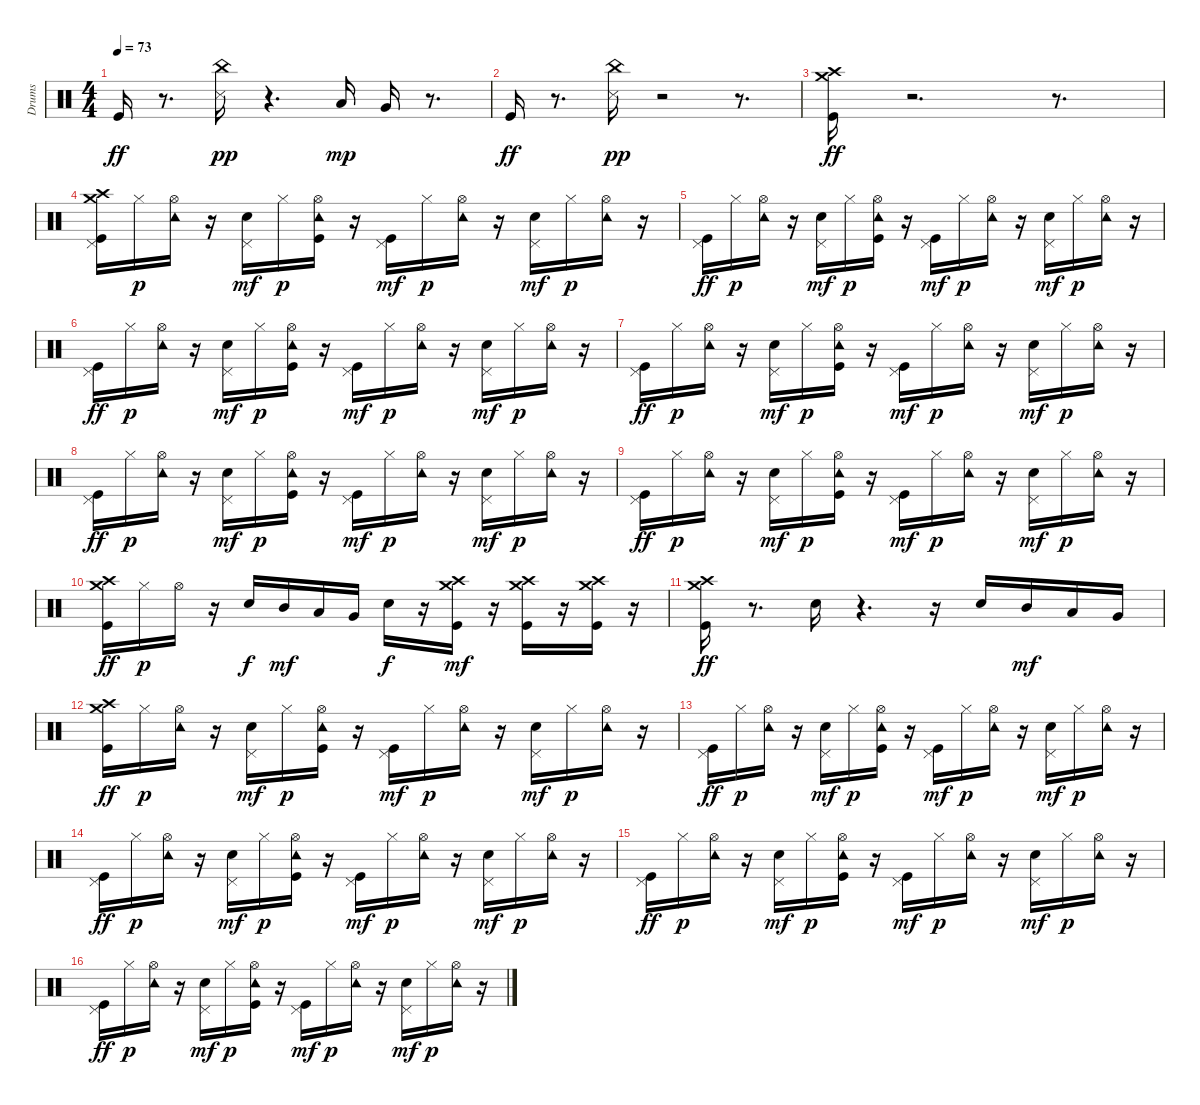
\track ("Drums" "Drums") {instrument percussion}
\staff {score}
\articulation defaults
\ts (4 4)
\tempo 73
\clef neutral
\ks c "Kick (hit)".16{dy ff}
r.8{d} ("Snare (side stick) 3" "China (hit)").16{dy pp} r.4{d} "Low Tom (hit)".16{dy mp} "Very Low Tom (hit)".16 r.8{d} |
"Kick (hit)".16{dy ff} r.8{d} ("Snare (side stick) 3" "China (hit)").16{dy pp} r.2 r.8{d} |
("Crash medium (hit)" "Crash high (hit)" "Kick (hit)").16{dy ff} r.2{d} r.8{d} |
("Crash high (hit)" "Crash medium (hit)" "Pedal Hi-Hat (hit)" "Kick (hit)").16 "Hi-Hat (closed)".16{dy p} ("Tambourine (hit)" "Hi-Hat (open)").16 r.16 ("Pedal Hi-Hat (hit)" "Snare (hit) 2").16{dy mf} "Hi-Hat (closed)".16{dy p} ("Tambourine (hit)" "Hi-Hat (open)" "Kick (hit)").16 r.16 ("Pedal Hi-Hat (hit)" "Kick (hit)").16{dy mf} "Hi-Hat (closed)".16{dy p} ("Tambourine (hit)" "Hi-Hat (open)").16 r.16 ("Pedal Hi-Hat (hit)" "Snare (hit) 2").16{dy mf} "Hi-Hat (closed)".16{dy p} ("Tambourine (hit)" "Hi-Hat (open)").16 r.16 |
("Pedal Hi-Hat (hit)" "Kick (hit)").16{dy ff} "Hi-Hat (closed)".16{dy p} ("Tambourine (hit)" "Hi-Hat (open)").16 r.16 ("Pedal Hi-Hat (hit)" "Snare (hit) 2").16{dy mf} "Hi-Hat (closed)".16{dy p} ("Tambourine (hit)" "Hi-Hat (open)" "Kick (hit)").16 r.16 ("Pedal Hi-Hat (hit)" "Kick (hit)").16{dy mf} "Hi-Hat (closed)".16{dy p} ("Tambourine (hit)" "Hi-Hat (open)").16 r.16 ("Pedal Hi-Hat (hit)" "Snare (hit) 2").16{dy mf} "Hi-Hat (closed)".16{dy p} ("Tambourine (hit)" "Hi-Hat (open)").16 r.16 |
("Pedal Hi-Hat (hit)" "Kick (hit)").16{dy ff} "Hi-Hat (closed)".16{dy p} ("Tambourine (hit)" "Hi-Hat (open)").16 r.16 ("Pedal Hi-Hat (hit)" "Snare (hit) 2").16{dy mf} "Hi-Hat (closed)".16{dy p} ("Tambourine (hit)" "Hi-Hat (open)" "Kick (hit)").16 r.16 ("Pedal Hi-Hat (hit)" "Kick (hit)").16{dy mf} "Hi-Hat (closed)".16{dy p} ("Tambourine (hit)" "Hi-Hat (open)").16 r.16 ("Pedal Hi-Hat (hit)" "Snare (hit) 2").16{dy mf} "Hi-Hat (closed)".16{dy p} ("Tambourine (hit)" "Hi-Hat (open)").16 r.16 |
("Pedal Hi-Hat (hit)" "Kick (hit)").16{dy ff} "Hi-Hat (closed)".16{dy p} ("Tambourine (hit)" "Hi-Hat (open)").16 r.16 ("Pedal Hi-Hat (hit)" "Snare (hit) 2").16{dy mf} "Hi-Hat (closed)".16{dy p} ("Tambourine (hit)" "Hi-Hat (open)" "Kick (hit)").16 r.16 ("Pedal Hi-Hat (hit)" "Kick (hit)").16{dy mf} "Hi-Hat (closed)".16{dy p} ("Tambourine (hit)" "Hi-Hat (open)").16 r.16 ("Pedal Hi-Hat (hit)" "Snare (hit) 2").16{dy mf} "Hi-Hat (closed)".16{dy p} ("Tambourine (hit)" "Hi-Hat (open)").16 r.16 |
("Pedal Hi-Hat (hit)" "Kick (hit)").16{dy ff} "Hi-Hat (closed)".16{dy p} ("Tambourine (hit)" "Hi-Hat (open)").16 r.16 ("Pedal Hi-Hat (hit)" "Snare (hit) 2").16{dy mf} "Hi-Hat (closed)".16{dy p} ("Tambourine (hit)" "Hi-Hat (open)" "Kick (hit)").16 r.16 ("Pedal Hi-Hat (hit)" "Kick (hit)").16{dy mf} "Hi-Hat (closed)".16{dy p} ("Tambourine (hit)" "Hi-Hat (open)").16 r.16 ("Pedal Hi-Hat (hit)" "Snare (hit) 2").16{dy mf} "Hi-Hat (closed)".16{dy p} ("Tambourine (hit)" "Hi-Hat (open)").16 r.16 |
("Pedal Hi-Hat (hit)" "Kick (hit)").16{dy ff} "Hi-Hat (closed)".16{dy p} ("Tambourine (hit)" "Hi-Hat (open)").16 r.16 ("Pedal Hi-Hat (hit)" "Snare (hit) 2").16{dy mf} "Hi-Hat (closed)".16{dy p} ("Tambourine (hit)" "Hi-Hat (open)" "Kick (hit)").16 r.16 ("Pedal Hi-Hat (hit)" "Kick (hit)").16{dy mf} "Hi-Hat (closed)".16{dy p} ("Tambourine (hit)" "Hi-Hat (open)").16 r.16 ("Pedal Hi-Hat (hit)" "Snare (hit) 2").16{dy mf} "Hi-Hat (closed)".16{dy p} ("Tambourine (hit)" "Hi-Hat (open)").16 r.16 |
("Crash high (hit)" "Crash medium (hit)" "Kick (hit)").16{dy ff} "Hi-Hat (closed)".16{dy p} "Hi-Hat (open)".16 r.16 "Snare (hit) 2".16{dy f} "Mid Tom (hit)".16{dy mf} "Low Tom (hit)".16 "Very Low Tom (hit)".16 "Snare (hit) 2".16{dy f} r.16 ("Crash high (hit)" "Crash medium (hit)" "Kick (hit)").16{dy mf} r.16 ("Crash high (hit)" "Crash medium (hit)" "Kick (hit)").16 r.16 ("Crash high (hit)" "Crash medium (hit)" "Kick (hit)").16 r.16 |
("Crash medium (hit)" "Crash high (hit)" "Kick (hit)").16{dy ff} r.8{d} "Snare (hit) 2".16 r.4{d} r.16 "Snare (hit) 2".16 "Mid Tom (hit)".16{dy mf} "Low Tom (hit)".16 "Very Low Tom (hit)".16 |
("Crash high (hit)" "Crash medium (hit)" "Kick (hit)").16{dy ff} "Hi-Hat (closed)".16{dy p} ("Tambourine (hit)" "Hi-Hat (open)").16 r.16 ("Pedal Hi-Hat (hit)" "Snare (hit) 2").16{dy mf} "Hi-Hat (closed)".16{dy p} ("Tambourine (hit)" "Hi-Hat (open)" "Kick (hit)").16 r.16 ("Pedal Hi-Hat (hit)" "Kick (hit)").16{dy mf} "Hi-Hat (closed)".16{dy p} ("Tambourine (hit)" "Hi-Hat (open)").16 r.16 ("Pedal Hi-Hat (hit)" "Snare (hit) 2").16{dy mf} "Hi-Hat (closed)".16{dy p} ("Tambourine (hit)" "Hi-Hat (open)").16 r.16 |
("Pedal Hi-Hat (hit)" "Kick (hit)").16{dy ff} "Hi-Hat (closed)".16{dy p} ("Tambourine (hit)" "Hi-Hat (open)").16 r.16 ("Pedal Hi-Hat (hit)" "Snare (hit) 2").16{dy mf} "Hi-Hat (closed)".16{dy p} ("Tambourine (hit)" "Hi-Hat (open)" "Kick (hit)").16 r.16 ("Pedal Hi-Hat (hit)" "Kick (hit)").16{dy mf} "Hi-Hat (closed)".16{dy p} ("Tambourine (hit)" "Hi-Hat (open)").16 r.16 ("Pedal Hi-Hat (hit)" "Snare (hit) 2").16{dy mf} "Hi-Hat (closed)".16{dy p} ("Tambourine (hit)" "Hi-Hat (open)").16 r.16 |
("Pedal Hi-Hat (hit)" "Kick (hit)").16{dy ff} "Hi-Hat (closed)".16{dy p} ("Tambourine (hit)" "Hi-Hat (open)").16 r.16 ("Pedal Hi-Hat (hit)" "Snare (hit) 2").16{dy mf} "Hi-Hat (closed)".16{dy p} ("Tambourine (hit)" "Hi-Hat (open)" "Kick (hit)").16 r.16 ("Pedal Hi-Hat (hit)" "Kick (hit)").16{dy mf} "Hi-Hat (closed)".16{dy p} ("Tambourine (hit)" "Hi-Hat (open)").16 r.16 ("Pedal Hi-Hat (hit)" "Snare (hit) 2").16{dy mf} "Hi-Hat (closed)".16{dy p} ("Tambourine (hit)" "Hi-Hat (open)").16 r.16 |
("Pedal Hi-Hat (hit)" "Kick (hit)").16{dy ff} "Hi-Hat (closed)".16{dy p} ("Tambourine (hit)" "Hi-Hat (open)").16 r.16 ("Pedal Hi-Hat (hit)" "Snare (hit) 2").16{dy mf} "Hi-Hat (closed)".16{dy p} ("Tambourine (hit)" "Hi-Hat (open)" "Kick (hit)").16 r.16 ("Pedal Hi-Hat (hit)" "Kick (hit)").16{dy mf} "Hi-Hat (closed)".16{dy p} ("Tambourine (hit)" "Hi-Hat (open)").16 r.16 ("Pedal Hi-Hat (hit)" "Snare (hit) 2").16{dy mf} "Hi-Hat (closed)".16{dy p} ("Tambourine (hit)" "Hi-Hat (open)").16 r.16 |
("Pedal Hi-Hat (hit)" "Kick (hit)").16{dy ff} "Hi-Hat (closed)".16{dy p} ("Tambourine (hit)" "Hi-Hat (open)").16 r.16 ("Pedal Hi-Hat (hit)" "Snare (hit) 2").16{dy mf} "Hi-Hat (closed)".16{dy p} ("Tambourine (hit)" "Hi-Hat (open)" "Kick (hit)").16 r.16 ("Pedal Hi-Hat (hit)" "Kick (hit)").16{dy mf} "Hi-Hat (closed)".16{dy p} ("Tambourine (hit)" "Hi-Hat (open)").16 r.16 ("Pedal Hi-Hat (hit)" "Snare (hit) 2").16{dy mf} "Hi-Hat (closed)".16{dy p} ("Tambourine (hit)" "Hi-Hat (open)").16 r.16
